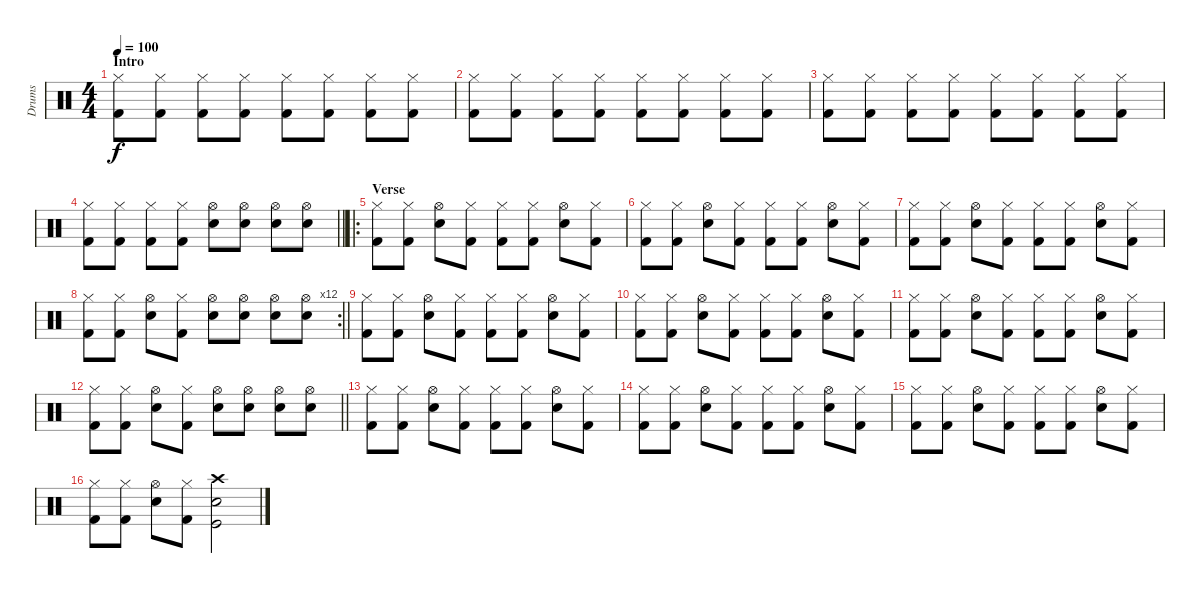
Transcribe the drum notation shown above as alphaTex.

\track ("Drums" "Drums") {instrument percussion}
\staff {score}
\articulation defaults
\ts (4 4)
\section ("" "Intro")
\tempo 100
\clef neutral
\ks c
("Kick (hit) 2" "Hi-Hat (closed)").8{dy f} ("Kick (hit) 2" "Hi-Hat (closed)").8 ("Hi-Hat (closed)" "Kick (hit) 2").8 ("Kick (hit) 2" "Hi-Hat (closed)").8 ("Hi-Hat (closed)" "Kick (hit) 2").8 ("Kick (hit) 2" "Hi-Hat (closed)").8 ("Kick (hit) 2" "Hi-Hat (closed)").8 ("Kick (hit) 2" "Hi-Hat (closed)").8 |
("Kick (hit) 2" "Hi-Hat (closed)").8 ("Kick (hit) 2" "Hi-Hat (closed)").8 ("Hi-Hat (closed)" "Kick (hit) 2").8 ("Kick (hit) 2" "Hi-Hat (closed)").8 ("Hi-Hat (closed)" "Kick (hit) 2").8 ("Kick (hit) 2" "Hi-Hat (closed)").8 ("Kick (hit) 2" "Hi-Hat (closed)").8 ("Kick (hit) 2" "Hi-Hat (closed)").8 |
("Kick (hit) 2" "Hi-Hat (closed)").8 ("Kick (hit) 2" "Hi-Hat (closed)").8 ("Hi-Hat (closed)" "Kick (hit) 2").8 ("Kick (hit) 2" "Hi-Hat (closed)").8 ("Hi-Hat (closed)" "Kick (hit) 2").8 ("Kick (hit) 2" "Hi-Hat (closed)").8 ("Kick (hit) 2" "Hi-Hat (closed)").8 ("Kick (hit) 2" "Hi-Hat (closed)").8 |
\barLineRight lightlight
("Kick (hit) 2" "Hi-Hat (closed)").8 ("Kick (hit) 2" "Hi-Hat (closed)").8 ("Kick (hit) 2" "Hi-Hat (closed)").8 ("Kick (hit) 2" "Hi-Hat (closed)").8 ("Hi-Hat (open)" "Electric Snare (hit)").8 ("Hi-Hat (open)" "Electric Snare (hit)").8 ("Electric Snare (hit)" "Hi-Hat (open)").8 ("Hi-Hat (open)" "Electric Snare (hit)").8 |
\ro
\section ("" "Verse")
("Kick (hit) 2" "Hi-Hat (closed)").8 ("Kick (hit) 2" "Hi-Hat (closed)").8 ("Electric Snare (hit)" "Hi-Hat (open)").8 ("Kick (hit) 2" "Hi-Hat (closed)").8 ("Kick (hit) 2" "Hi-Hat (closed)").8 ("Kick (hit) 2" "Hi-Hat (closed)").8 ("Electric Snare (hit)" "Hi-Hat (open)").8 ("Kick (hit) 2" "Hi-Hat (closed)").8 |
("Kick (hit) 2" "Hi-Hat (closed)").8 ("Kick (hit) 2" "Hi-Hat (closed)").8 ("Electric Snare (hit)" "Hi-Hat (open)").8 ("Kick (hit) 2" "Hi-Hat (closed)").8 ("Kick (hit) 2" "Hi-Hat (closed)").8 ("Kick (hit) 2" "Hi-Hat (closed)").8 ("Electric Snare (hit)" "Hi-Hat (open)").8 ("Kick (hit) 2" "Hi-Hat (closed)").8 |
("Kick (hit) 2" "Hi-Hat (closed)").8 ("Kick (hit) 2" "Hi-Hat (closed)").8 ("Electric Snare (hit)" "Hi-Hat (open)").8 ("Kick (hit) 2" "Hi-Hat (closed)").8 ("Kick (hit) 2" "Hi-Hat (closed)").8 ("Kick (hit) 2" "Hi-Hat (closed)").8 ("Electric Snare (hit)" "Hi-Hat (open)").8 ("Kick (hit) 2" "Hi-Hat (closed)").8 |
\rc 12
\barLineRight lightlight
("Kick (hit) 2" "Hi-Hat (closed)").8 ("Kick (hit) 2" "Hi-Hat (closed)").8 ("Electric Snare (hit)" "Hi-Hat (open)").8 ("Kick (hit) 2" "Hi-Hat (closed)").8 ("Electric Snare (hit)" "Hi-Hat (open)").8 ("Hi-Hat (open)" "Electric Snare (hit)").8 ("Electric Snare (hit)" "Hi-Hat (open)").8 ("Hi-Hat (open)" "Electric Snare (hit)").8 |
("Kick (hit) 2" "Hi-Hat (closed)").8 ("Kick (hit) 2" "Hi-Hat (closed)").8 ("Electric Snare (hit)" "Hi-Hat (open)").8 ("Kick (hit) 2" "Hi-Hat (closed)").8 ("Kick (hit) 2" "Hi-Hat (closed)").8 ("Kick (hit) 2" "Hi-Hat (closed)").8 ("Electric Snare (hit)" "Hi-Hat (open)").8 ("Kick (hit) 2" "Hi-Hat (closed)").8 |
("Kick (hit) 2" "Hi-Hat (closed)").8 ("Kick (hit) 2" "Hi-Hat (closed)").8 ("Electric Snare (hit)" "Hi-Hat (open)").8 ("Kick (hit) 2" "Hi-Hat (closed)").8 ("Kick (hit) 2" "Hi-Hat (closed)").8 ("Kick (hit) 2" "Hi-Hat (closed)").8 ("Electric Snare (hit)" "Hi-Hat (open)").8 ("Kick (hit) 2" "Hi-Hat (closed)").8 |
("Kick (hit) 2" "Hi-Hat (closed)").8 ("Kick (hit) 2" "Hi-Hat (closed)").8 ("Electric Snare (hit)" "Hi-Hat (open)").8 ("Kick (hit) 2" "Hi-Hat (closed)").8 ("Kick (hit) 2" "Hi-Hat (closed)").8 ("Kick (hit) 2" "Hi-Hat (closed)").8 ("Electric Snare (hit)" "Hi-Hat (open)").8 ("Kick (hit) 2" "Hi-Hat (closed)").8 |
\barLineRight lightlight
("Kick (hit) 2" "Hi-Hat (closed)").8 ("Kick (hit) 2" "Hi-Hat (closed)").8 ("Electric Snare (hit)" "Hi-Hat (open)").8 ("Kick (hit) 2" "Hi-Hat (closed)").8 ("Electric Snare (hit)" "Hi-Hat (open)").8 ("Hi-Hat (open)" "Electric Snare (hit)").8 ("Electric Snare (hit)" "Hi-Hat (open)").8 ("Hi-Hat (open)" "Electric Snare (hit)").8 |
("Kick (hit) 2" "Hi-Hat (closed)").8 ("Kick (hit) 2" "Hi-Hat (closed)").8 ("Electric Snare (hit)" "Hi-Hat (open)").8 ("Kick (hit) 2" "Hi-Hat (closed)").8 ("Kick (hit) 2" "Hi-Hat (closed)").8 ("Kick (hit) 2" "Hi-Hat (closed)").8 ("Electric Snare (hit)" "Hi-Hat (open)").8 ("Kick (hit) 2" "Hi-Hat (closed)").8 |
("Kick (hit) 2" "Hi-Hat (closed)").8 ("Kick (hit) 2" "Hi-Hat (closed)").8 ("Electric Snare (hit)" "Hi-Hat (open)").8 ("Kick (hit) 2" "Hi-Hat (closed)").8 ("Kick (hit) 2" "Hi-Hat (closed)").8 ("Kick (hit) 2" "Hi-Hat (closed)").8 ("Electric Snare (hit)" "Hi-Hat (open)").8 ("Kick (hit) 2" "Hi-Hat (closed)").8 |
("Kick (hit) 2" "Hi-Hat (closed)").8 ("Kick (hit) 2" "Hi-Hat (closed)").8 ("Electric Snare (hit)" "Hi-Hat (open)").8 ("Kick (hit) 2" "Hi-Hat (closed)").8 ("Kick (hit) 2" "Hi-Hat (closed)").8 ("Kick (hit) 2" "Hi-Hat (closed)").8 ("Electric Snare (hit)" "Hi-Hat (open)").8 ("Kick (hit) 2" "Hi-Hat (closed)").8 |
("Kick (hit) 2" "Hi-Hat (closed)").8 ("Kick (hit) 2" "Hi-Hat (closed)").8 ("Electric Snare (hit)" "Hi-Hat (open)").8 ("Kick (hit) 2" "Hi-Hat (closed)").8 ("Kick (hit)" "Electric Snare (hit)" "Crash high (hit)").2
